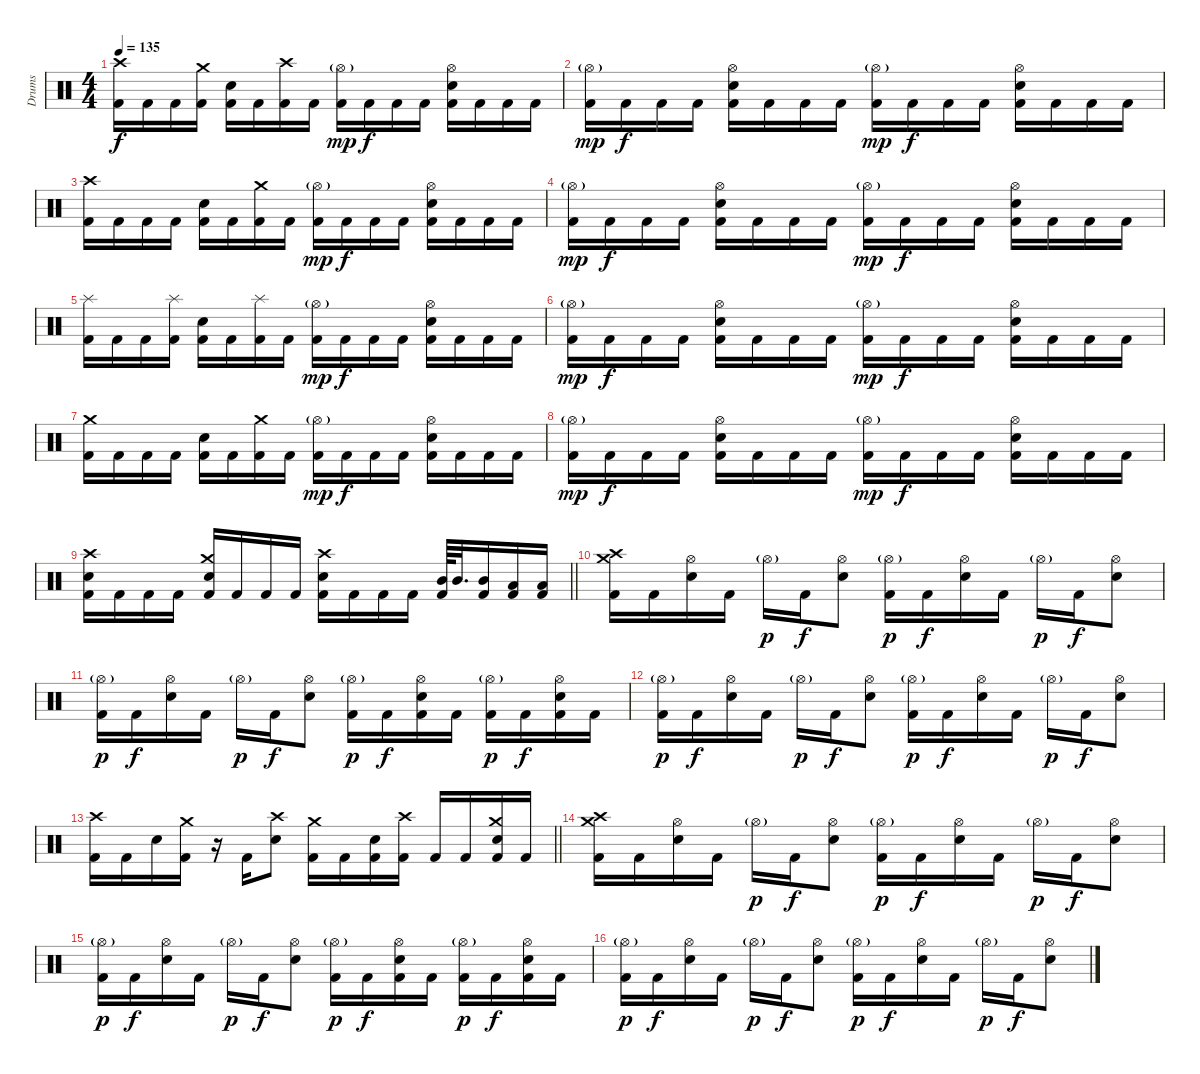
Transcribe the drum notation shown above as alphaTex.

\track ("Drums" "Drums") {instrument percussion}
\staff {score}
\articulation defaults
\ts (4 4)
\tempo 135
\clef neutral
\ks c
("Crash high (hit)" "Kick (hit) 2").16{dy f} "Kick (hit) 2".16 "Kick (hit) 2".16 ("Crash medium (hit)" "Kick (hit) 2").16 ("Electric Snare (hit)" "Kick (hit) 2").16 "Kick (hit) 2".16 ("Crash high (hit)" "Kick (hit) 2").16 "Kick (hit) 2".16 ("Hi-Hat (open)"{g} "Kick (hit) 2").16{dy mp} "Kick (hit) 2".16{dy f} "Kick (hit) 2".16 "Kick (hit) 2".16 ("Hi-Hat (open)" "Electric Snare (hit)" "Kick (hit) 2").16 "Kick (hit) 2".16 "Kick (hit) 2".16 "Kick (hit) 2".16 |
("Hi-Hat (open)"{g} "Kick (hit) 2").16{dy mp} "Kick (hit) 2".16{dy f} "Kick (hit) 2".16 "Kick (hit) 2".16 ("Hi-Hat (open)" "Electric Snare (hit)" "Kick (hit) 2").16 "Kick (hit) 2".16 "Kick (hit) 2".16 "Kick (hit) 2".16 ("Hi-Hat (open)"{g} "Kick (hit) 2").16{dy mp} "Kick (hit) 2".16{dy f} "Kick (hit) 2".16 "Kick (hit) 2".16 ("Hi-Hat (open)" "Electric Snare (hit)" "Kick (hit) 2").16 "Kick (hit) 2".16 "Kick (hit) 2".16 "Kick (hit) 2".16 |
("Crash high (hit)" "Kick (hit) 2").16 "Kick (hit) 2".16 "Kick (hit) 2".16 "Kick (hit) 2".16 ("Electric Snare (hit)" "Kick (hit) 2").16 "Kick (hit) 2".16 ("Crash medium (hit)" "Kick (hit) 2").16 "Kick (hit) 2".16 ("Hi-Hat (open)"{g} "Kick (hit) 2").16{dy mp} "Kick (hit) 2".16{dy f} "Kick (hit) 2".16 "Kick (hit) 2".16 ("Hi-Hat (open)" "Electric Snare (hit)" "Kick (hit) 2").16 "Kick (hit) 2".16 "Kick (hit) 2".16 "Kick (hit) 2".16 |
("Hi-Hat (open)"{g} "Kick (hit) 2").16{dy mp} "Kick (hit) 2".16{dy f} "Kick (hit) 2".16 "Kick (hit) 2".16 ("Hi-Hat (open)" "Electric Snare (hit)" "Kick (hit) 2").16 "Kick (hit) 2".16 "Kick (hit) 2".16 "Kick (hit) 2".16 ("Hi-Hat (open)"{g} "Kick (hit) 2").16{dy mp} "Kick (hit) 2".16{dy f} "Kick (hit) 2".16 "Kick (hit) 2".16 ("Hi-Hat (open)" "Electric Snare (hit)" "Kick (hit) 2").16 "Kick (hit) 2".16 "Kick (hit) 2".16 "Kick (hit) 2".16 |
("Splash (hit)" "Kick (hit) 2").16 "Kick (hit) 2".16 "Kick (hit) 2".16 ("Splash (hit)" "Kick (hit) 2").16 ("Electric Snare (hit)" "Kick (hit) 2").16 "Kick (hit) 2".16 ("Splash (hit)" "Kick (hit) 2").16 "Kick (hit) 2".16 ("Hi-Hat (open)"{g} "Kick (hit) 2").16{dy mp} "Kick (hit) 2".16{dy f} "Kick (hit) 2".16 "Kick (hit) 2".16 ("Hi-Hat (open)" "Electric Snare (hit)" "Kick (hit) 2").16 "Kick (hit) 2".16 "Kick (hit) 2".16 "Kick (hit) 2".16 |
("Hi-Hat (open)"{g} "Kick (hit) 2").16{dy mp} "Kick (hit) 2".16{dy f} "Kick (hit) 2".16 "Kick (hit) 2".16 ("Hi-Hat (open)" "Electric Snare (hit)" "Kick (hit) 2").16 "Kick (hit) 2".16 "Kick (hit) 2".16 "Kick (hit) 2".16 ("Hi-Hat (open)"{g} "Kick (hit) 2").16{dy mp} "Kick (hit) 2".16{dy f} "Kick (hit) 2".16 "Kick (hit) 2".16 ("Hi-Hat (open)" "Electric Snare (hit)" "Kick (hit) 2").16 "Kick (hit) 2".16 "Kick (hit) 2".16 "Kick (hit) 2".16 |
("Crash medium (hit)" "Kick (hit) 2").16 "Kick (hit) 2".16 "Kick (hit) 2".16 "Kick (hit) 2".16 ("Electric Snare (hit)" "Kick (hit) 2").16 "Kick (hit) 2".16 ("Crash medium (hit)" "Kick (hit) 2").16 "Kick (hit) 2".16 ("Hi-Hat (open)"{g} "Kick (hit) 2").16{dy mp} "Kick (hit) 2".16{dy f} "Kick (hit) 2".16 "Kick (hit) 2".16 ("Hi-Hat (open)" "Electric Snare (hit)" "Kick (hit) 2").16 "Kick (hit) 2".16 "Kick (hit) 2".16 "Kick (hit) 2".16 |
("Hi-Hat (open)"{g} "Kick (hit) 2").16{dy mp} "Kick (hit) 2".16{dy f} "Kick (hit) 2".16 "Kick (hit) 2".16 ("Hi-Hat (open)" "Electric Snare (hit)" "Kick (hit) 2").16 "Kick (hit) 2".16 "Kick (hit) 2".16 "Kick (hit) 2".16 ("Hi-Hat (open)"{g} "Kick (hit) 2").16{dy mp} "Kick (hit) 2".16{dy f} "Kick (hit) 2".16 "Kick (hit) 2".16 ("Hi-Hat (open)" "Electric Snare (hit)" "Kick (hit) 2").16 "Kick (hit) 2".16 "Kick (hit) 2".16 "Kick (hit) 2".16 |
\barLineRight lightlight
("Crash high (hit)" "Electric Snare (hit)" "Kick (hit) 2").16 "Kick (hit) 2".16 "Kick (hit) 2".16 "Kick (hit) 2".16 ("Crash medium (hit)" "Electric Snare (hit)" "Kick (hit) 2").16 "Kick (hit) 2".16 "Kick (hit) 2".16 "Kick (hit) 2".16 ("Crash high (hit)" "Electric Snare (hit)" "Kick (hit) 2").16 "Kick (hit) 2".16 "Kick (hit) 2".16 "Kick (hit) 2".16 ("Mid Tom (hit)" "Kick (hit) 2").64 "Mid Tom (hit)".32{d} ("Mid Tom (hit)" "Kick (hit) 2").16 ("Low Tom (hit)" "Kick (hit) 2").16 ("Low Tom (hit)" "Kick (hit) 2").16 |
("Crash high (hit)" "Crash medium (hit)" "Kick (hit) 2").16 "Kick (hit) 2".16 ("Hi-Hat (open)" "Electric Snare (hit)").16 "Kick (hit) 2".16 "Hi-Hat (open)"{g}.16{dy p} "Kick (hit) 2".16{dy f} ("Hi-Hat (open)" "Electric Snare (hit)").8 ("Hi-Hat (open)"{g} "Kick (hit) 2").16{dy p} "Kick (hit) 2".16{dy f} ("Hi-Hat (open)" "Electric Snare (hit)").16 "Kick (hit) 2".16 "Hi-Hat (open)"{g}.16{dy p} "Kick (hit) 2".16{dy f} ("Hi-Hat (open)" "Electric Snare (hit)").8 |
("Hi-Hat (open)"{g} "Kick (hit) 2").16{dy p} "Kick (hit) 2".16{dy f} ("Hi-Hat (open)" "Electric Snare (hit)").16 "Kick (hit) 2".16 "Hi-Hat (open)"{g}.16{dy p} "Kick (hit) 2".16{dy f} ("Hi-Hat (open)" "Electric Snare (hit)").8 ("Hi-Hat (open)"{g} "Kick (hit) 2").16{dy p} "Kick (hit) 2".16{dy f} ("Hi-Hat (open)" "Electric Snare (hit)" "Kick (hit) 2").16 "Kick (hit) 2".16 ("Hi-Hat (open)"{g} "Kick (hit) 2").16{dy p} "Kick (hit) 2".16{dy f} ("Hi-Hat (open)" "Electric Snare (hit)" "Kick (hit) 2").16 "Kick (hit) 2".16 |
("Hi-Hat (open)"{g} "Kick (hit) 2").16{dy p} "Kick (hit) 2".16{dy f} ("Hi-Hat (open)" "Electric Snare (hit)").16 "Kick (hit) 2".16 "Hi-Hat (open)"{g}.16{dy p} "Kick (hit) 2".16{dy f} ("Hi-Hat (open)" "Electric Snare (hit)").8 ("Hi-Hat (open)"{g} "Kick (hit) 2").16{dy p} "Kick (hit) 2".16{dy f} ("Hi-Hat (open)" "Electric Snare (hit)").16 "Kick (hit) 2".16 "Hi-Hat (open)"{g}.16{dy p} "Kick (hit) 2".16{dy f} ("Hi-Hat (open)" "Electric Snare (hit)").8 |
\barLineRight lightlight
("Crash high (hit)" "Kick (hit) 2").16 "Kick (hit) 2".16 "Electric Snare (hit)".16 ("Crash medium (hit)" "Kick (hit) 2").16 r.16 "Kick (hit) 2".16 ("Crash high (hit)" "Electric Snare (hit)").8 ("Crash medium (hit)" "Kick (hit) 2").16 "Kick (hit) 2".16 ("Electric Snare (hit)" "Kick (hit) 2").16 ("Crash high (hit)" "Kick (hit) 2").16 "Kick (hit) 2".16 "Kick (hit) 2".16 ("Crash medium (hit)" "Electric Snare (hit)" "Kick (hit) 2").16 "Kick (hit) 2".16 |
("Crash high (hit)" "Crash medium (hit)" "Kick (hit) 2").16 "Kick (hit) 2".16 ("Hi-Hat (open)" "Electric Snare (hit)").16 "Kick (hit) 2".16 "Hi-Hat (open)"{g}.16{dy p} "Kick (hit) 2".16{dy f} ("Hi-Hat (open)" "Electric Snare (hit)").8 ("Hi-Hat (open)"{g} "Kick (hit) 2").16{dy p} "Kick (hit) 2".16{dy f} ("Hi-Hat (open)" "Electric Snare (hit)").16 "Kick (hit) 2".16 "Hi-Hat (open)"{g}.16{dy p} "Kick (hit) 2".16{dy f} ("Hi-Hat (open)" "Electric Snare (hit)").8 |
("Hi-Hat (open)"{g} "Kick (hit) 2").16{dy p} "Kick (hit) 2".16{dy f} ("Hi-Hat (open)" "Electric Snare (hit)").16 "Kick (hit) 2".16 "Hi-Hat (open)"{g}.16{dy p} "Kick (hit) 2".16{dy f} ("Hi-Hat (open)" "Electric Snare (hit)").8 ("Hi-Hat (open)"{g} "Kick (hit) 2").16{dy p} "Kick (hit) 2".16{dy f} ("Hi-Hat (open)" "Electric Snare (hit)" "Kick (hit) 2").16 "Kick (hit) 2".16 ("Hi-Hat (open)"{g} "Kick (hit) 2").16{dy p} "Kick (hit) 2".16{dy f} ("Hi-Hat (open)" "Electric Snare (hit)" "Kick (hit) 2").16 "Kick (hit) 2".16 |
("Hi-Hat (open)"{g} "Kick (hit) 2").16{dy p} "Kick (hit) 2".16{dy f} ("Hi-Hat (open)" "Electric Snare (hit)").16 "Kick (hit) 2".16 "Hi-Hat (open)"{g}.16{dy p} "Kick (hit) 2".16{dy f} ("Hi-Hat (open)" "Electric Snare (hit)").8 ("Hi-Hat (open)"{g} "Kick (hit) 2").16{dy p} "Kick (hit) 2".16{dy f} ("Hi-Hat (open)" "Electric Snare (hit)").16 "Kick (hit) 2".16 "Hi-Hat (open)"{g}.16{dy p} "Kick (hit) 2".16{dy f} ("Hi-Hat (open)" "Electric Snare (hit)").8
